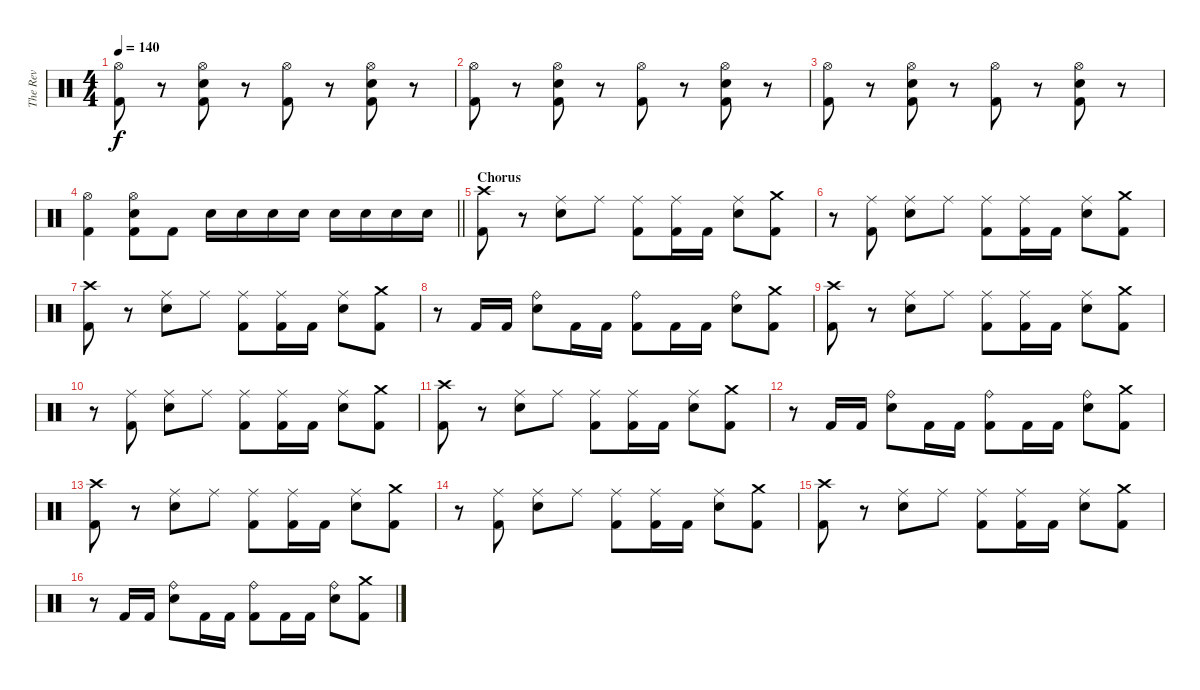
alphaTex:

\track ("The Rev" "The Rev") {instrument percussion}
\staff {score}
\articulation defaults
\ts (4 4)
\tempo 140
\clef neutral
\ks c
("Hi-Hat (open)" "Kick (hit) 2").8{dy f} r.8 ("Hi-Hat (open)" "Electric Snare (hit)" "Kick (hit) 2").8 r.8 ("Hi-Hat (open)" "Kick (hit) 2").8 r.8 ("Hi-Hat (open)" "Electric Snare (hit)" "Kick (hit) 2").8 r.8 |
("Hi-Hat (open)" "Kick (hit) 2").8 r.8 ("Hi-Hat (open)" "Electric Snare (hit)" "Kick (hit) 2").8 r.8 ("Hi-Hat (open)" "Kick (hit) 2").8 r.8 ("Hi-Hat (open)" "Electric Snare (hit)" "Kick (hit) 2").8 r.8 |
("Hi-Hat (open)" "Kick (hit) 2").8 r.8 ("Hi-Hat (open)" "Electric Snare (hit)" "Kick (hit) 2").8 r.8 ("Hi-Hat (open)" "Kick (hit) 2").8 r.8 ("Hi-Hat (open)" "Electric Snare (hit)" "Kick (hit) 2").8 r.8 |
\barLineRight lightlight
("Hi-Hat (open)" "Kick (hit) 2").4 ("Hi-Hat (open)" "Electric Snare (hit)" "Kick (hit) 2").8 "Kick (hit) 2".8 "Electric Snare (hit)".16 "Electric Snare (hit)".16 "Electric Snare (hit)".16 "Electric Snare (hit)".16 "Electric Snare (hit)".16 "Electric Snare (hit)".16 "Electric Snare (hit)".16 "Electric Snare (hit)".16 |
\section ("" "Chorus")
("Crash high (hit)" "Kick (hit) 2").8 r.8 ("Ride (middle)" "Electric Snare (hit)").8 "Ride (middle)".8 ("Ride (middle)" "Kick (hit) 2").8 ("Ride (middle)" "Kick (hit) 2").16 "Kick (hit) 2".16 ("Ride (middle)" "Electric Snare (hit)").8 ("Crash medium (hit)" "Kick (hit) 2").8 |
r.8 ("Ride (middle)" "Kick (hit) 2").8 ("Ride (middle)" "Electric Snare (hit)").8 "Ride (middle)".8 ("Ride (middle)" "Kick (hit) 2").8 ("Ride (middle)" "Kick (hit) 2").16 "Kick (hit) 2".16 ("Ride (middle)" "Electric Snare (hit)").8 ("Crash medium (hit)" "Kick (hit) 2").8 |
("Crash high (hit)" "Kick (hit) 2").8 r.8 ("Ride (middle)" "Electric Snare (hit)").8 "Ride (middle)".8 ("Ride (middle)" "Kick (hit) 2").8 ("Ride (middle)" "Kick (hit) 2").16 "Kick (hit) 2".16 ("Ride (middle)" "Electric Snare (hit)").8 ("Crash medium (hit)" "Kick (hit) 2").8 |
r.8 "Kick (hit) 2".16 "Kick (hit) 2".16 ("Ride (bell)" "Electric Snare (hit)").8 "Kick (hit) 2".16 "Kick (hit) 2".16 ("Ride (bell)" "Kick (hit) 2").8 "Kick (hit) 2".16 "Kick (hit) 2".16 ("Ride (bell)" "Electric Snare (hit)").8 ("Crash medium (hit)" "Kick (hit) 2").8 |
("Crash high (hit)" "Kick (hit) 2").8 r.8 ("Ride (middle)" "Electric Snare (hit)").8 "Ride (middle)".8 ("Ride (middle)" "Kick (hit) 2").8 ("Ride (middle)" "Kick (hit) 2").16 "Kick (hit) 2".16 ("Ride (middle)" "Electric Snare (hit)").8 ("Crash medium (hit)" "Kick (hit) 2").8 |
r.8 ("Ride (middle)" "Kick (hit) 2").8 ("Ride (middle)" "Electric Snare (hit)").8 "Ride (middle)".8 ("Ride (middle)" "Kick (hit) 2").8 ("Ride (middle)" "Kick (hit) 2").16 "Kick (hit) 2".16 ("Ride (middle)" "Electric Snare (hit)").8 ("Crash medium (hit)" "Kick (hit) 2").8 |
("Crash high (hit)" "Kick (hit) 2").8 r.8 ("Ride (middle)" "Electric Snare (hit)").8 "Ride (middle)".8 ("Ride (middle)" "Kick (hit) 2").8 ("Ride (middle)" "Kick (hit) 2").16 "Kick (hit) 2".16 ("Ride (middle)" "Electric Snare (hit)").8 ("Crash medium (hit)" "Kick (hit) 2").8 |
r.8 "Kick (hit) 2".16 "Kick (hit) 2".16 ("Ride (bell)" "Electric Snare (hit)").8 "Kick (hit) 2".16 "Kick (hit) 2".16 ("Ride (bell)" "Kick (hit) 2").8 "Kick (hit) 2".16 "Kick (hit) 2".16 ("Ride (bell)" "Electric Snare (hit)").8 ("Crash medium (hit)" "Kick (hit) 2").8 |
("Crash high (hit)" "Kick (hit) 2").8 r.8 ("Ride (middle)" "Electric Snare (hit)").8 "Ride (middle)".8 ("Ride (middle)" "Kick (hit) 2").8 ("Ride (middle)" "Kick (hit) 2").16 "Kick (hit) 2".16 ("Ride (middle)" "Electric Snare (hit)").8 ("Crash medium (hit)" "Kick (hit) 2").8 |
r.8 ("Ride (middle)" "Kick (hit) 2").8 ("Ride (middle)" "Electric Snare (hit)").8 "Ride (middle)".8 ("Ride (middle)" "Kick (hit) 2").8 ("Ride (middle)" "Kick (hit) 2").16 "Kick (hit) 2".16 ("Ride (middle)" "Electric Snare (hit)").8 ("Crash medium (hit)" "Kick (hit) 2").8 |
("Crash high (hit)" "Kick (hit) 2").8 r.8 ("Ride (middle)" "Electric Snare (hit)").8 "Ride (middle)".8 ("Ride (middle)" "Kick (hit) 2").8 ("Ride (middle)" "Kick (hit) 2").16 "Kick (hit) 2".16 ("Ride (middle)" "Electric Snare (hit)").8 ("Crash medium (hit)" "Kick (hit) 2").8 |
r.8 "Kick (hit) 2".16 "Kick (hit) 2".16 ("Ride (bell)" "Electric Snare (hit)").8 "Kick (hit) 2".16 "Kick (hit) 2".16 ("Ride (bell)" "Kick (hit) 2").8 "Kick (hit) 2".16 "Kick (hit) 2".16 ("Ride (bell)" "Electric Snare (hit)").8 ("Crash medium (hit)" "Kick (hit) 2").8
